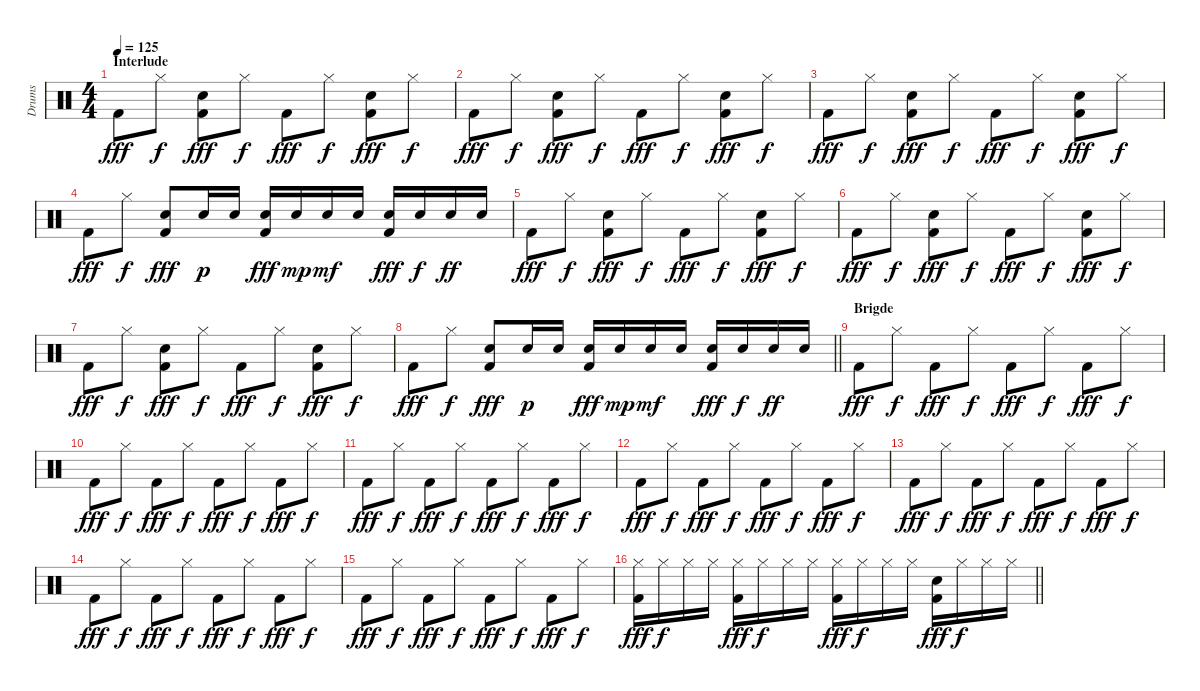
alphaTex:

\track ("Drums" "Drums") {instrument percussion}
\staff {score}
\articulation defaults
\ts (4 4)
\section ("" "Interlude")
\tempo 125
\clef neutral
\ks c "Kick (hit) 2".8{dy fff} "Hi-Hat (closed)".8{dy f}
("Snare (hit) 2" "Kick (hit) 2").8{dy fff} "Hi-Hat (closed)".8{dy f} "Kick (hit) 2".8{dy fff} "Hi-Hat (closed)".8{dy f} ("Snare (hit) 2" "Kick (hit) 2").8{dy fff} "Hi-Hat (closed)".8{dy f} |
"Kick (hit) 2".8{dy fff} "Hi-Hat (closed)".8{dy f} ("Snare (hit) 2" "Kick (hit) 2").8{dy fff} "Hi-Hat (closed)".8{dy f} "Kick (hit) 2".8{dy fff} "Hi-Hat (closed)".8{dy f} ("Snare (hit) 2" "Kick (hit) 2").8{dy fff} "Hi-Hat (closed)".8{dy f} |
"Kick (hit) 2".8{dy fff} "Hi-Hat (closed)".8{dy f} ("Snare (hit) 2" "Kick (hit) 2").8{dy fff} "Hi-Hat (closed)".8{dy f} "Kick (hit) 2".8{dy fff} "Hi-Hat (closed)".8{dy f} ("Snare (hit) 2" "Kick (hit) 2").8{dy fff} "Hi-Hat (closed)".8{dy f} |
"Kick (hit) 2".8{dy fff} "Hi-Hat (closed)".8{dy f} ("Snare (hit) 2" "Kick (hit) 2").8{dy fff} "Snare (hit) 2".16{dy p} "Snare (hit) 2".16 ("Snare (hit) 2" "Kick (hit) 2").16{dy fff} "Snare (hit) 2".16{dy mp} "Snare (hit) 2".16{dy mf} "Snare (hit) 2".16 ("Snare (hit) 2" "Kick (hit) 2").16{dy fff} "Snare (hit) 2".16{dy f} "Snare (hit) 2".16{dy ff} "Snare (hit) 2".16 |
"Kick (hit) 2".8{dy fff} "Hi-Hat (closed)".8{dy f} ("Snare (hit) 2" "Kick (hit) 2").8{dy fff} "Hi-Hat (closed)".8{dy f} "Kick (hit) 2".8{dy fff} "Hi-Hat (closed)".8{dy f} ("Snare (hit) 2" "Kick (hit) 2").8{dy fff} "Hi-Hat (closed)".8{dy f} |
"Kick (hit) 2".8{dy fff} "Hi-Hat (closed)".8{dy f} ("Snare (hit) 2" "Kick (hit) 2").8{dy fff} "Hi-Hat (closed)".8{dy f} "Kick (hit) 2".8{dy fff} "Hi-Hat (closed)".8{dy f} ("Snare (hit) 2" "Kick (hit) 2").8{dy fff} "Hi-Hat (closed)".8{dy f} |
"Kick (hit) 2".8{dy fff} "Hi-Hat (closed)".8{dy f} ("Snare (hit) 2" "Kick (hit) 2").8{dy fff} "Hi-Hat (closed)".8{dy f} "Kick (hit) 2".8{dy fff} "Hi-Hat (closed)".8{dy f} ("Snare (hit) 2" "Kick (hit) 2").8{dy fff} "Hi-Hat (closed)".8{dy f} |
\barLineRight lightlight "Kick (hit) 2".8{dy fff} "Hi-Hat (closed)".8{dy f}
("Snare (hit) 2" "Kick (hit) 2").8{dy fff} "Snare (hit) 2".16{dy p} "Snare (hit) 2".16 ("Snare (hit) 2" "Kick (hit) 2").16{dy fff} "Snare (hit) 2".16{dy mp} "Snare (hit) 2".16{dy mf} "Snare (hit) 2".16 ("Snare (hit) 2" "Kick (hit) 2").16{dy fff} "Snare (hit) 2".16{dy f} "Snare (hit) 2".16{dy ff} "Snare (hit) 2".16 |
\section ("" "Brigde")
"Kick (hit) 2".8{dy fff} "Hi-Hat (closed)".8{dy f} "Kick (hit) 2".8{dy fff} "Hi-Hat (closed)".8{dy f} "Kick (hit) 2".8{dy fff} "Hi-Hat (closed)".8{dy f} "Kick (hit) 2".8{dy fff} "Hi-Hat (closed)".8{dy f} |
"Kick (hit) 2".8{dy fff} "Hi-Hat (closed)".8{dy f} "Kick (hit) 2".8{dy fff} "Hi-Hat (closed)".8{dy f} "Kick (hit) 2".8{dy fff} "Hi-Hat (closed)".8{dy f} "Kick (hit) 2".8{dy fff} "Hi-Hat (closed)".8{dy f} |
"Kick (hit) 2".8{dy fff} "Hi-Hat (closed)".8{dy f} "Kick (hit) 2".8{dy fff} "Hi-Hat (closed)".8{dy f} "Kick (hit) 2".8{dy fff} "Hi-Hat (closed)".8{dy f} "Kick (hit) 2".8{dy fff} "Hi-Hat (closed)".8{dy f} |
"Kick (hit) 2".8{dy fff} "Hi-Hat (closed)".8{dy f} "Kick (hit) 2".8{dy fff} "Hi-Hat (closed)".8{dy f} "Kick (hit) 2".8{dy fff} "Hi-Hat (closed)".8{dy f} "Kick (hit) 2".8{dy fff} "Hi-Hat (closed)".8{dy f} |
"Kick (hit) 2".8{dy fff} "Hi-Hat (closed)".8{dy f} "Kick (hit) 2".8{dy fff} "Hi-Hat (closed)".8{dy f} "Kick (hit) 2".8{dy fff} "Hi-Hat (closed)".8{dy f} "Kick (hit) 2".8{dy fff} "Hi-Hat (closed)".8{dy f} |
"Kick (hit) 2".8{dy fff} "Hi-Hat (closed)".8{dy f} "Kick (hit) 2".8{dy fff} "Hi-Hat (closed)".8{dy f} "Kick (hit) 2".8{dy fff} "Hi-Hat (closed)".8{dy f} "Kick (hit) 2".8{dy fff} "Hi-Hat (closed)".8{dy f} |
"Kick (hit) 2".8{dy fff} "Hi-Hat (closed)".8{dy f} "Kick (hit) 2".8{dy fff} "Hi-Hat (closed)".8{dy f} "Kick (hit) 2".8{dy fff} "Hi-Hat (closed)".8{dy f} "Kick (hit) 2".8{dy fff} "Hi-Hat (closed)".8{dy f} |
\barLineRight lightlight
("Hi-Hat (closed)" "Kick (hit) 2").16{dy fff} "Hi-Hat (closed)".16{dy f} "Hi-Hat (closed)".16 "Hi-Hat (closed)".16 ("Hi-Hat (closed)" "Kick (hit) 2").16{dy fff} "Hi-Hat (closed)".16{dy f} "Hi-Hat (closed)".16 "Hi-Hat (closed)".16 ("Hi-Hat (closed)" "Kick (hit) 2").16{dy fff} "Hi-Hat (closed)".16{dy f} "Hi-Hat (closed)".16 "Hi-Hat (closed)".16 ("Snare (hit) 2" "Kick (hit) 2").16{dy fff} "Hi-Hat (closed)".16{dy f} "Hi-Hat (closed)".16 "Hi-Hat (closed)".16
